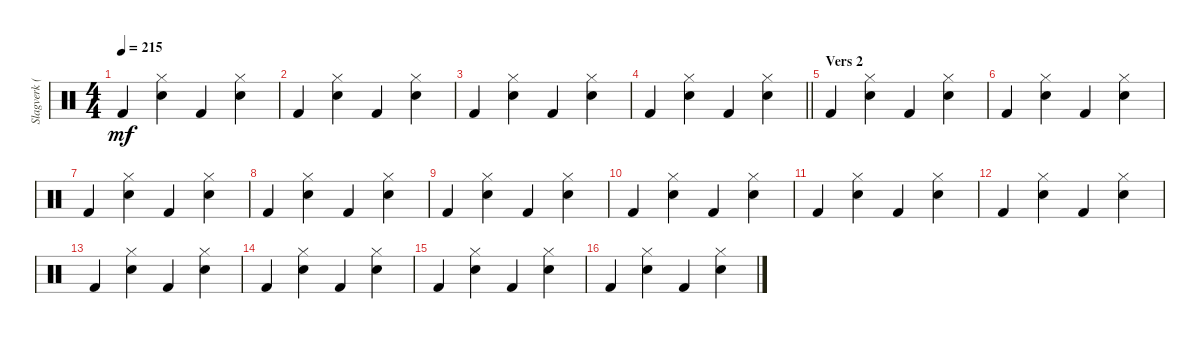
\track ("Slagverk (Jan Kristiansen)" "Slagverk (") {instrument percussion}
\staff {score}
\articulation defaults
\ts (4 4)
\tempo 215
\clef neutral
\ks c "Kick (hit) 2".4{dy mf}
("Hi-Hat (closed)" "Snare (hit) 2").4 "Kick (hit) 2".4 ("Hi-Hat (closed)" "Snare (hit) 2").4 |
"Kick (hit) 2".4 ("Hi-Hat (closed)" "Snare (hit) 2").4 "Kick (hit) 2".4 ("Hi-Hat (closed)" "Snare (hit) 2").4 |
"Kick (hit) 2".4 ("Hi-Hat (closed)" "Snare (hit) 2").4 "Kick (hit) 2".4 ("Hi-Hat (closed)" "Snare (hit) 2").4 |
\barLineRight lightlight "Kick (hit) 2".4
("Hi-Hat (closed)" "Snare (hit) 2").4 "Kick (hit) 2".4 ("Hi-Hat (closed)" "Snare (hit) 2").4 |
\section ("" "Vers 2")
"Kick (hit) 2".4 ("Hi-Hat (closed)" "Snare (hit) 2").4 "Kick (hit) 2".4 ("Hi-Hat (closed)" "Snare (hit) 2").4 |
"Kick (hit) 2".4 ("Hi-Hat (closed)" "Snare (hit) 2").4 "Kick (hit) 2".4 ("Hi-Hat (closed)" "Snare (hit) 2").4 |
"Kick (hit) 2".4 ("Hi-Hat (closed)" "Snare (hit) 2").4 "Kick (hit) 2".4 ("Hi-Hat (closed)" "Snare (hit) 2").4 |
"Kick (hit) 2".4 ("Hi-Hat (closed)" "Snare (hit) 2").4 "Kick (hit) 2".4 ("Hi-Hat (closed)" "Snare (hit) 2").4 |
"Kick (hit) 2".4 ("Hi-Hat (closed)" "Snare (hit) 2").4 "Kick (hit) 2".4 ("Hi-Hat (closed)" "Snare (hit) 2").4 |
"Kick (hit) 2".4 ("Hi-Hat (closed)" "Snare (hit) 2").4 "Kick (hit) 2".4 ("Hi-Hat (closed)" "Snare (hit) 2").4 |
"Kick (hit) 2".4 ("Hi-Hat (closed)" "Snare (hit) 2").4 "Kick (hit) 2".4 ("Hi-Hat (closed)" "Snare (hit) 2").4 |
"Kick (hit) 2".4 ("Hi-Hat (closed)" "Snare (hit) 2").4 "Kick (hit) 2".4 ("Hi-Hat (closed)" "Snare (hit) 2").4 |
"Kick (hit) 2".4 ("Hi-Hat (closed)" "Snare (hit) 2").4 "Kick (hit) 2".4 ("Hi-Hat (closed)" "Snare (hit) 2").4 |
"Kick (hit) 2".4 ("Hi-Hat (closed)" "Snare (hit) 2").4 "Kick (hit) 2".4 ("Hi-Hat (closed)" "Snare (hit) 2").4 |
"Kick (hit) 2".4 ("Hi-Hat (closed)" "Snare (hit) 2").4 "Kick (hit) 2".4 ("Hi-Hat (closed)" "Snare (hit) 2").4 |
"Kick (hit) 2".4 ("Hi-Hat (closed)" "Snare (hit) 2").4 "Kick (hit) 2".4 ("Hi-Hat (closed)" "Snare (hit) 2").4
